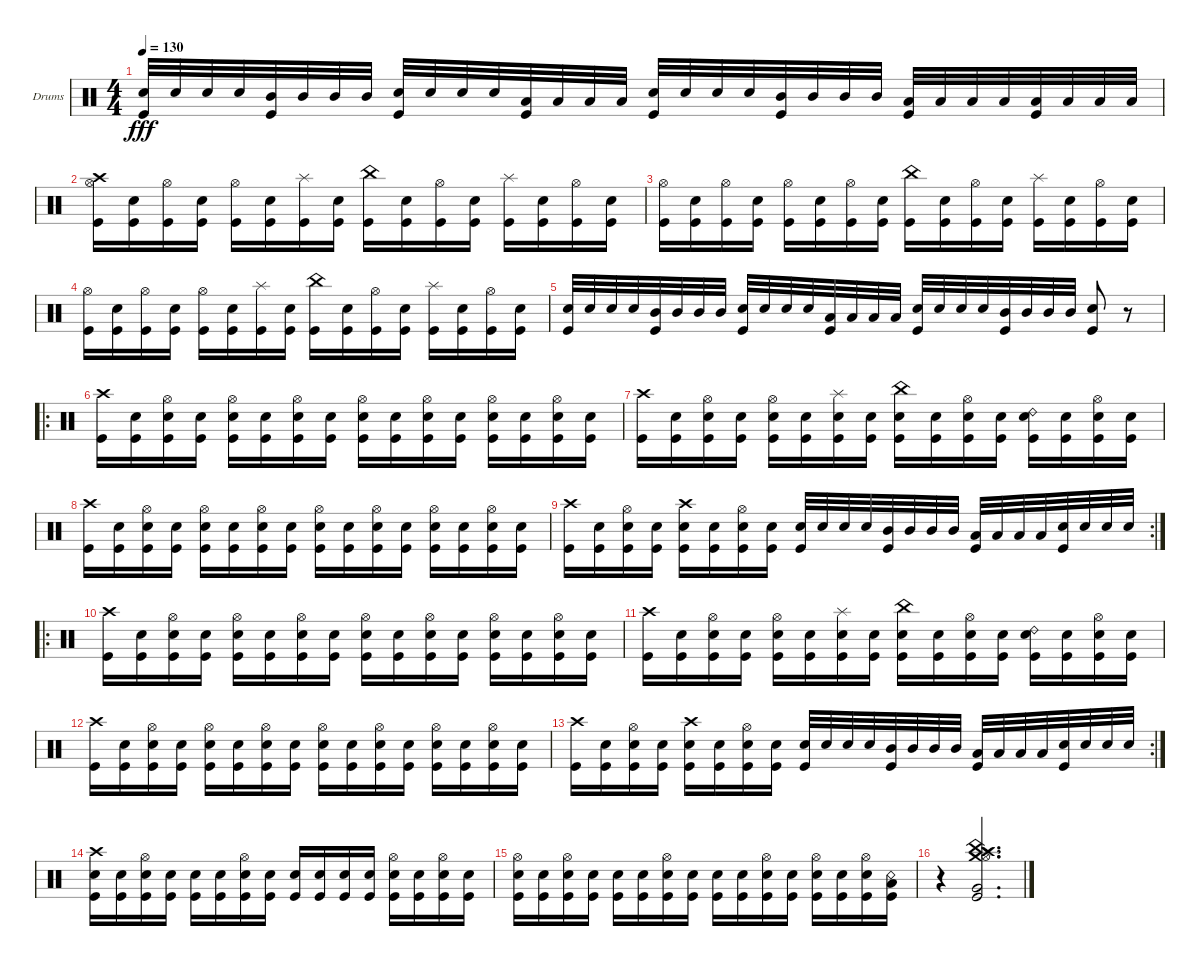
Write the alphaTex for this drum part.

\bracketExtendMode groupsimilarinstruments
\firstSystemTrackNameOrientation horizontal
\otherSystemsTrackNameOrientation horizontal
\track ("Drumkit" "Drums") {instrument percussion}
\staff {score}
\articulation defaults
\ts (4 4)
\tempo 130
\clef neutral
\scale
0.333333
\ks c
("Kick (hit)" "Snare (hit) 2").32{dy fff} "Snare (hit) 2".32 "Snare (hit) 2".32 "Snare (hit) 2".32 ("Kick (hit)" "Mid Tom (hit)").32 "Mid Tom (hit)".32 "Mid Tom (hit)".32 "Mid Tom (hit)".32 ("Kick (hit)" "Snare (hit) 2").32 "Snare (hit) 2".32 "Snare (hit) 2".32 "Snare (hit) 2".32 ("Kick (hit)" "Low Tom (hit)").32 "Low Tom (hit)".32 "Low Tom (hit)".32 "Low Tom (hit)".32 ("Kick (hit)" "Snare (hit) 2").32 "Snare (hit) 2".32 "Snare (hit) 2".32 "Snare (hit) 2".32 ("Kick (hit)" "Mid Tom (hit)").32 "Mid Tom (hit)".32 "Mid Tom (hit)".32 "Mid Tom (hit)".32 ("Kick (hit)" "Low Tom (hit)").32 "Low Tom (hit)".32 "Low Tom (hit)".32 "Low Tom (hit)".32 ("Kick (hit)" "Low Tom (hit)").32 "Low Tom (hit)".32 "Low Tom (hit)".32 "Low Tom (hit)".32 |
\scale
0.333333 ("Kick (hit)" "Hi-Hat (open)" "Crash high (hit)").16 ("Snare (hit) 2" "Kick (hit)").16 ("Kick (hit)" "Hi-Hat (open)").16 ("Snare (hit) 2" "Kick (hit)").16 ("Kick (hit)" "Hi-Hat (open)").16 ("Snare (hit) 2" "Kick (hit)").16 ("Kick (hit)" "Splash (hit)").16 ("Snare (hit) 2" "Kick (hit)").16 ("Kick (hit)" "China (hit)").16 ("Snare (hit) 2" "Kick (hit)").16 ("Kick (hit)" "Hi-Hat (open)").16 ("Snare (hit) 2" "Kick (hit)").16 ("Kick (hit)" "Splash (hit)").16 ("Snare (hit) 2" "Kick (hit)").16 ("Kick (hit)" "Hi-Hat (open)").16 ("Snare (hit) 2" "Kick (hit)").16 |
\scale
0.333333 ("Kick (hit)" "Hi-Hat (open)").16 ("Snare (hit) 2" "Kick (hit)").16 ("Kick (hit)" "Hi-Hat (open)").16 ("Snare (hit) 2" "Kick (hit)").16 ("Kick (hit)" "Hi-Hat (open)").16 ("Snare (hit) 2" "Kick (hit)").16 ("Kick (hit)" "Hi-Hat (open)").16 ("Snare (hit) 2" "Kick (hit)").16 ("Kick (hit)" "China (hit)").16 ("Snare (hit) 2" "Kick (hit)").16 ("Kick (hit)" "Hi-Hat (open)").16 ("Snare (hit) 2" "Kick (hit)").16 ("Kick (hit)" "Splash (hit)").16 ("Snare (hit) 2" "Kick (hit)").16 ("Kick (hit)" "Hi-Hat (open)").16 ("Snare (hit) 2" "Kick (hit)").16 |
\scale
0.333333 ("Kick (hit)" "Hi-Hat (open)").16 ("Snare (hit) 2" "Kick (hit)").16 ("Kick (hit)" "Hi-Hat (open)").16 ("Snare (hit) 2" "Kick (hit)").16 ("Kick (hit)" "Hi-Hat (open)").16 ("Snare (hit) 2" "Kick (hit)").16 ("Kick (hit)" "Splash (hit)").16 ("Snare (hit) 2" "Kick (hit)").16 ("Kick (hit)" "China (hit)").16 ("Snare (hit) 2" "Kick (hit)").16 ("Kick (hit)" "Hi-Hat (open)").16 ("Snare (hit) 2" "Kick (hit)").16 ("Kick (hit)" "Splash (hit)").16 ("Snare (hit) 2" "Kick (hit)").16 ("Kick (hit)" "Hi-Hat (open)").16 ("Snare (hit) 2" "Kick (hit)").16 |
\scale
0.311111 ("Kick (hit)" "Snare (hit) 2").32 "Snare (hit) 2".32 "Snare (hit) 2".32 "Snare (hit) 2".32 ("Kick (hit)" "Mid Tom (hit)").32 "Mid Tom (hit)".32 "Mid Tom (hit)".32 "Mid Tom (hit)".32 ("Kick (hit)" "Snare (hit) 2").32 "Snare (hit) 2".32 "Snare (hit) 2".32 "Snare (hit) 2".32 ("Kick (hit)" "Low Tom (hit)").32 "Low Tom (hit)".32 "Low Tom (hit)".32 "Low Tom (hit)".32 ("Kick (hit)" "Snare (hit) 2").32 "Snare (hit) 2".32 "Snare (hit) 2".32 "Snare (hit) 2".32 ("Kick (hit)" "Mid Tom (hit)").32 "Mid Tom (hit)".32 "Mid Tom (hit)".32 "Mid Tom (hit)".32 ("Kick (hit)" "Snare (hit) 2").8 r.8 |
\ro
\scale
0.377778 ("Kick (hit)" "Crash high (hit)").16 ("Snare (hit) 2" "Kick (hit)").16 ("Snare (hit) 2" "Kick (hit)" "Hi-Hat (open)").16 ("Snare (hit) 2" "Kick (hit)").16 ("Snare (hit) 2" "Kick (hit)" "Hi-Hat (open)").16 ("Snare (hit) 2" "Kick (hit)").16 ("Snare (hit) 2" "Kick (hit)" "Hi-Hat (open)").16 ("Snare (hit) 2" "Kick (hit)").16 ("Snare (hit) 2" "Kick (hit)" "Hi-Hat (open)").16 ("Snare (hit) 2" "Kick (hit)").16 ("Snare (hit) 2" "Kick (hit)" "Hi-Hat (open)").16 ("Snare (hit) 2" "Kick (hit)").16 ("Snare (hit) 2" "Kick (hit)" "Hi-Hat (open)").16 ("Snare (hit) 2" "Kick (hit)").16 ("Snare (hit) 2" "Kick (hit)" "Hi-Hat (open)").16 ("Snare (hit) 2" "Kick (hit)").16 |
\scale
0.311111 ("Kick (hit)" "Crash high (hit)").16 ("Snare (hit) 2" "Kick (hit)").16 ("Snare (hit) 2" "Kick (hit)" "Hi-Hat (open)").16 ("Snare (hit) 2" "Kick (hit)").16 ("Snare (hit) 2" "Kick (hit)" "Hi-Hat (open)").16 ("Snare (hit) 2" "Kick (hit)").16 ("Snare (hit) 2" "Kick (hit)" "Splash (hit)").16 ("Snare (hit) 2" "Kick (hit)").16 ("Snare (hit) 2" "Kick (hit)" "China (hit)").16 ("Snare (hit) 2" "Kick (hit)").16 ("Snare (hit) 2" "Kick (hit)" "Hi-Hat (open)").16 ("Snare (hit) 2" "Kick (hit)").16 ("Snare (hit) 2" "Kick (hit)" "Ride (bell) 2").16 ("Snare (hit) 2" "Kick (hit)").16 ("Snare (hit) 2" "Kick (hit)" "Hi-Hat (open)").16 ("Snare (hit) 2" "Kick (hit)").16 |
\scale
0.321839 ("Kick (hit)" "Crash high (hit)").16 ("Snare (hit) 2" "Kick (hit)").16 ("Snare (hit) 2" "Kick (hit)" "Hi-Hat (open)").16 ("Snare (hit) 2" "Kick (hit)").16 ("Snare (hit) 2" "Kick (hit)" "Hi-Hat (open)").16 ("Snare (hit) 2" "Kick (hit)").16 ("Snare (hit) 2" "Kick (hit)" "Hi-Hat (open)").16 ("Snare (hit) 2" "Kick (hit)").16 ("Snare (hit) 2" "Kick (hit)" "Hi-Hat (open)").16 ("Snare (hit) 2" "Kick (hit)").16 ("Snare (hit) 2" "Kick (hit)" "Hi-Hat (open)").16 ("Snare (hit) 2" "Kick (hit)").16 ("Snare (hit) 2" "Kick (hit)" "Hi-Hat (open)").16 ("Snare (hit) 2" "Kick (hit)").16 ("Snare (hit) 2" "Kick (hit)" "Hi-Hat (open)").16 ("Snare (hit) 2" "Kick (hit)").16 |
\rc 2
\scale
0.356322 ("Kick (hit)" "Crash high (hit)").16 ("Snare (hit) 2" "Kick (hit)").16 ("Snare (hit) 2" "Kick (hit)" "Hi-Hat (open)").16 ("Snare (hit) 2" "Kick (hit)").16 ("Snare (hit) 2" "Kick (hit)" "Crash high (hit)").16 ("Snare (hit) 2" "Kick (hit)").16 ("Snare (hit) 2" "Kick (hit)" "Hi-Hat (open)").16 ("Snare (hit) 2" "Kick (hit)").16 ("Kick (hit)" "Snare (hit) 2").32 "Snare (hit) 2".32 "Snare (hit) 2".32 "Snare (hit) 2".32 ("Kick (hit)" "Mid Tom (hit)").32 "Mid Tom (hit)".32 "Mid Tom (hit)".32 "Mid Tom (hit)".32 ("Kick (hit)" "Low Tom (hit)").32 "Low Tom (hit)".32 "Low Tom (hit)".32 "Low Tom (hit)".32 ("Kick (hit)" "Snare (hit) 2").32 "Snare (hit) 2".32 "Snare (hit) 2".32 "Snare (hit) 2".32 |
\ro
("Kick (hit)" "Crash high (hit)").16 ("Snare (hit) 2" "Kick (hit)").16 ("Snare (hit) 2" "Kick (hit)" "Hi-Hat (open)").16 ("Snare (hit) 2" "Kick (hit)").16 ("Snare (hit) 2" "Kick (hit)" "Hi-Hat (open)").16 ("Snare (hit) 2" "Kick (hit)").16 ("Snare (hit) 2" "Kick (hit)" "Hi-Hat (open)").16 ("Snare (hit) 2" "Kick (hit)").16 ("Snare (hit) 2" "Kick (hit)" "Hi-Hat (open)").16 ("Snare (hit) 2" "Kick (hit)").16 ("Snare (hit) 2" "Kick (hit)" "Hi-Hat (open)").16 ("Snare (hit) 2" "Kick (hit)").16 ("Snare (hit) 2" "Kick (hit)" "Hi-Hat (open)").16 ("Snare (hit) 2" "Kick (hit)").16 ("Snare (hit) 2" "Kick (hit)" "Hi-Hat (open)").16 ("Snare (hit) 2" "Kick (hit)").16 |
("Kick (hit)" "Crash high (hit)").16 ("Snare (hit) 2" "Kick (hit)").16 ("Snare (hit) 2" "Kick (hit)" "Hi-Hat (open)").16 ("Snare (hit) 2" "Kick (hit)").16 ("Snare (hit) 2" "Kick (hit)" "Hi-Hat (open)").16 ("Snare (hit) 2" "Kick (hit)").16 ("Snare (hit) 2" "Kick (hit)" "Splash (hit)").16 ("Snare (hit) 2" "Kick (hit)").16 ("Snare (hit) 2" "Kick (hit)" "China (hit)").16 ("Snare (hit) 2" "Kick (hit)").16 ("Snare (hit) 2" "Kick (hit)" "Hi-Hat (open)").16 ("Snare (hit) 2" "Kick (hit)").16 ("Snare (hit) 2" "Kick (hit)" "Ride (bell) 2").16 ("Snare (hit) 2" "Kick (hit)").16 ("Snare (hit) 2" "Kick (hit)" "Hi-Hat (open)").16 ("Snare (hit) 2" "Kick (hit)").16 |
("Kick (hit)" "Crash high (hit)").16 ("Snare (hit) 2" "Kick (hit)").16 ("Snare (hit) 2" "Kick (hit)" "Hi-Hat (open)").16 ("Snare (hit) 2" "Kick (hit)").16 ("Snare (hit) 2" "Kick (hit)" "Hi-Hat (open)").16 ("Snare (hit) 2" "Kick (hit)").16 ("Snare (hit) 2" "Kick (hit)" "Hi-Hat (open)").16 ("Snare (hit) 2" "Kick (hit)").16 ("Snare (hit) 2" "Kick (hit)" "Hi-Hat (open)").16 ("Snare (hit) 2" "Kick (hit)").16 ("Snare (hit) 2" "Kick (hit)" "Hi-Hat (open)").16 ("Snare (hit) 2" "Kick (hit)").16 ("Snare (hit) 2" "Kick (hit)" "Hi-Hat (open)").16 ("Snare (hit) 2" "Kick (hit)").16 ("Snare (hit) 2" "Kick (hit)" "Hi-Hat (open)").16 ("Snare (hit) 2" "Kick (hit)").16 |
\rc 2
("Kick (hit)" "Crash high (hit)").16 ("Snare (hit) 2" "Kick (hit)").16 ("Snare (hit) 2" "Kick (hit)" "Hi-Hat (open)").16 ("Snare (hit) 2" "Kick (hit)").16 ("Snare (hit) 2" "Kick (hit)" "Crash high (hit)").16 ("Snare (hit) 2" "Kick (hit)").16 ("Snare (hit) 2" "Kick (hit)" "Hi-Hat (open)").16 ("Snare (hit) 2" "Kick (hit)").16 ("Kick (hit)" "Snare (hit) 2").32 "Snare (hit) 2".32 "Snare (hit) 2".32 "Snare (hit) 2".32 ("Kick (hit)" "Mid Tom (hit)").32 "Mid Tom (hit)".32 "Mid Tom (hit)".32 "Mid Tom (hit)".32 ("Kick (hit)" "Low Tom (hit)").32 "Low Tom (hit)".32 "Low Tom (hit)".32 "Low Tom (hit)".32 ("Kick (hit)" "Snare (hit) 2").32 "Snare (hit) 2".32 "Snare (hit) 2".32 "Snare (hit) 2".32 |
\scale
0.321839 ("Snare (hit) 2" "Kick (hit)" "Crash high (hit)").16 ("Snare (hit) 2" "Kick (hit)").16 ("Snare (hit) 2" "Kick (hit)" "Hi-Hat (open)").16 ("Snare (hit) 2" "Kick (hit)").16 ("Snare (hit) 2" "Kick (hit)").16 ("Snare (hit) 2" "Kick (hit)").16 ("Snare (hit) 2" "Kick (hit)" "Hi-Hat (open)").16 ("Snare (hit) 2" "Kick (hit)").16 ("Snare (hit) 2" "Kick (hit)").16 ("Snare (hit) 2" "Kick (hit)").16 ("Snare (hit) 2" "Kick (hit)").16 ("Snare (hit) 2" "Kick (hit)").16 ("Snare (hit) 2" "Kick (hit)" "Hi-Hat (open)").16 ("Snare (hit) 2" "Kick (hit)").16 ("Snare (hit) 2" "Kick (hit)" "Hi-Hat (open)").16 ("Snare (hit) 2" "Kick (hit)").16 |
\scale
0.333333 ("Snare (hit) 2" "Kick (hit)" "Hi-Hat (open)").16 ("Snare (hit) 2" "Kick (hit)").16 ("Snare (hit) 2" "Kick (hit)" "Hi-Hat (open)").16 ("Snare (hit) 2" "Kick (hit)").16 ("Snare (hit) 2" "Kick (hit)").16 ("Snare (hit) 2" "Kick (hit)").16 ("Snare (hit) 2" "Kick (hit)" "Hi-Hat (open)").16 ("Snare (hit) 2" "Kick (hit)").16 ("Snare (hit) 2" "Kick (hit)").16 ("Snare (hit) 2" "Kick (hit)").16 ("Snare (hit) 2" "Kick (hit)" "Hi-Hat (open)").16 ("Snare (hit) 2" "Kick (hit)").16 ("Snare (hit) 2" "Kick (hit)" "Hi-Hat (open)").16 ("Snare (hit) 2" "Kick (hit)").16 ("Snare (hit) 2" "Kick (hit)" "Hi-Hat (open)").16 ("Snare (rim shot)" "Kick (hit)" "Low Tom (hit)").16 |
\scale
0.333333 r.4 ("Kick (hit)" "China (hit)" "Crash high (hit)" "Splash (hit)" "Crash medium (hit)" "Hi-Hat (open)" "Very Low Tom (hit)").2{d}
